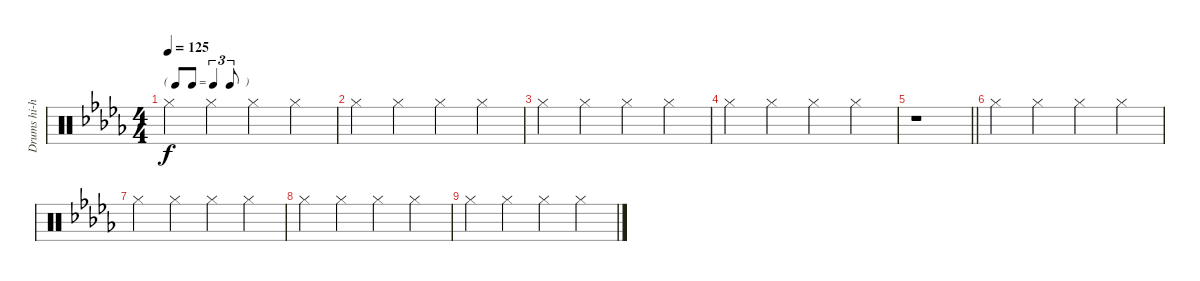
\track ("Drums hi-hat" "Drums hi-h") {instrument percussion}
\staff {score}
\articulation defaults
\ts (4 4)
\tf triplet8th
\tempo 125
\clef neutral
\ks db "Hi-Hat (closed)".4{dy f} "Hi-Hat (closed)".4 "Hi-Hat (closed)".4 "Hi-Hat (closed)".4
|
"Hi-Hat (closed)".4 "Hi-Hat (closed)".4 "Hi-Hat (closed)".4 "Hi-Hat (closed)".4 |
"Hi-Hat (closed)".4 "Hi-Hat (closed)".4 "Hi-Hat (closed)".4 "Hi-Hat (closed)".4 |
"Hi-Hat (closed)".4 "Hi-Hat (closed)".4 "Hi-Hat (closed)".4 "Hi-Hat (closed)".4 |
\barLineRight lightlight
r.1 |
"Hi-Hat (closed)".4 "Hi-Hat (closed)".4 "Hi-Hat (closed)".4 "Hi-Hat (closed)".4 |
"Hi-Hat (closed)".4 "Hi-Hat (closed)".4 "Hi-Hat (closed)".4 "Hi-Hat (closed)".4 |
"Hi-Hat (closed)".4 "Hi-Hat (closed)".4 "Hi-Hat (closed)".4 "Hi-Hat (closed)".4 |
"Hi-Hat (closed)".4 "Hi-Hat (closed)".4 "Hi-Hat (closed)".4 "Hi-Hat (closed)".4
